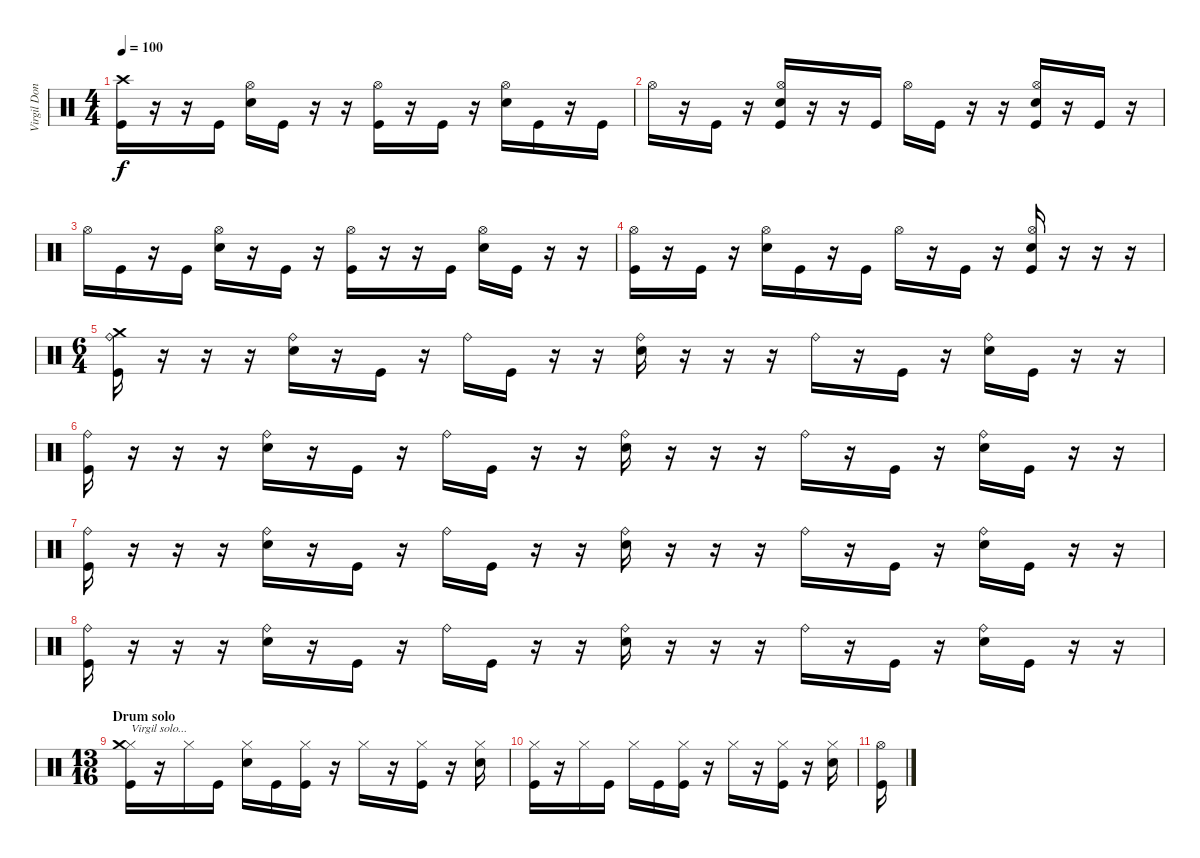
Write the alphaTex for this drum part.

\track ("Virgil Donati" "Virgil Don") {instrument percussion}
\staff {score}
\articulation defaults
\ts (4 4)
\tempo 100
\clef neutral
\ks c
("Crash high (hit)" "Kick (hit)").16{dy f} r.16 r.16 "Kick (hit)".16 ("Hi-Hat (open)" "Electric Snare (hit)").16 "Kick (hit)".16 r.16 r.16 ("Hi-Hat (open)" "Kick (hit)").16 r.16 "Kick (hit)".16 r.16 ("Hi-Hat (open)" "Electric Snare (hit)").16 "Kick (hit)".16 r.16 "Kick (hit)".16 |
"Hi-Hat (open)".16 r.16 "Kick (hit)".16 r.16 ("Hi-Hat (open)" "Electric Snare (hit)" "Kick (hit)").16 r.16 r.16 "Kick (hit)".16 "Hi-Hat (open)".16 "Kick (hit)".16 r.16 r.16 ("Hi-Hat (open)" "Electric Snare (hit)" "Kick (hit)").16 r.16 "Kick (hit)".16 r.16 |
"Hi-Hat (open)".16 "Kick (hit)".16 r.16 "Kick (hit)".16 ("Hi-Hat (open)" "Electric Snare (hit)").16 r.16 "Kick (hit)".16 r.16 ("Hi-Hat (open)" "Kick (hit)").16 r.16 r.16 "Kick (hit)".16 ("Hi-Hat (open)" "Electric Snare (hit)").16 "Kick (hit)".16 r.16 r.16 |
("Hi-Hat (open)" "Kick (hit)").16 r.16 "Kick (hit)".16 r.16 ("Hi-Hat (open)" "Electric Snare (hit)").16 "Kick (hit)".16 r.16 "Kick (hit)".16 "Hi-Hat (open)".16 r.16 "Kick (hit)".16 r.16 ("Hi-Hat (open)" "Electric Snare (hit)" "Kick (hit)").16 r.16 r.16 r.16 |
\ts (6 4)
("Ride (bell)" "Crash medium (hit)" "Kick (hit)").16 r.16 r.16 r.16 ("Ride (bell)" "Electric Snare (hit)").16 r.16 "Kick (hit)".16 r.16 "Ride (bell)".16 "Kick (hit)".16 r.16 r.16 ("Ride (bell)" "Electric Snare (hit)").16 r.16 r.16 r.16 "Ride (bell)".16 r.16 "Kick (hit)".16 r.16 ("Ride (bell)" "Electric Snare (hit)").16 "Kick (hit)".16 r.16 r.16 |
("Ride (bell)" "Kick (hit)").16 r.16 r.16 r.16 ("Ride (bell)" "Electric Snare (hit)").16 r.16 "Kick (hit)".16 r.16 "Ride (bell)".16 "Kick (hit)".16 r.16 r.16 ("Ride (bell)" "Electric Snare (hit)").16 r.16 r.16 r.16 "Ride (bell)".16 r.16 "Kick (hit)".16 r.16 ("Ride (bell)" "Electric Snare (hit)").16 "Kick (hit)".16 r.16 r.16 |
("Ride (bell)" "Kick (hit)").16 r.16 r.16 r.16 ("Ride (bell)" "Electric Snare (hit)").16 r.16 "Kick (hit)".16 r.16 "Ride (bell)".16 "Kick (hit)".16 r.16 r.16 ("Ride (bell)" "Electric Snare (hit)").16 r.16 r.16 r.16 "Ride (bell)".16 r.16 "Kick (hit)".16 r.16 ("Ride (bell)" "Electric Snare (hit)").16 "Kick (hit)".16 r.16 r.16 |
("Ride (bell)" "Kick (hit)").16 r.16 r.16 r.16 ("Ride (bell)" "Electric Snare (hit)").16 r.16 "Kick (hit)".16 r.16 "Ride (bell)".16 "Kick (hit)".16 r.16 r.16 ("Ride (bell)" "Electric Snare (hit)").16 r.16 r.16 r.16 "Ride (bell)".16 r.16 "Kick (hit)".16 r.16 ("Ride (bell)" "Electric Snare (hit)").16 "Kick (hit)".16 r.16 r.16 |
\ts (13 16)
\section ("" "Drum solo")
("Hi-Hat (closed)" "Crash medium (hit)" "Kick (hit)").16{txt "Virgil solo..."} r.16 "Hi-Hat (closed)".16 "Kick (hit)".16 ("Hi-Hat (closed)" "Electric Snare (hit)").16 "Kick (hit)".16 ("Hi-Hat (closed)" "Kick (hit)").16 r.16 "Hi-Hat (closed)".16 r.16 ("Hi-Hat (closed)" "Kick (hit)").16 r.16 ("Hi-Hat (closed)" "Electric Snare (hit)").16 |
("Hi-Hat (closed)" "Kick (hit)").16 r.16 "Hi-Hat (closed)".16 "Kick (hit)".16 "Hi-Hat (closed)".16 "Kick (hit)".16 ("Hi-Hat (closed)" "Kick (hit)").16 r.16 "Hi-Hat (closed)".16 r.16 ("Hi-Hat (closed)" "Kick (hit)").16 r.16 ("Hi-Hat (closed)" "Electric Snare (hit)").16 |
("Hi-Hat (open)" "Kick (hit)").16
